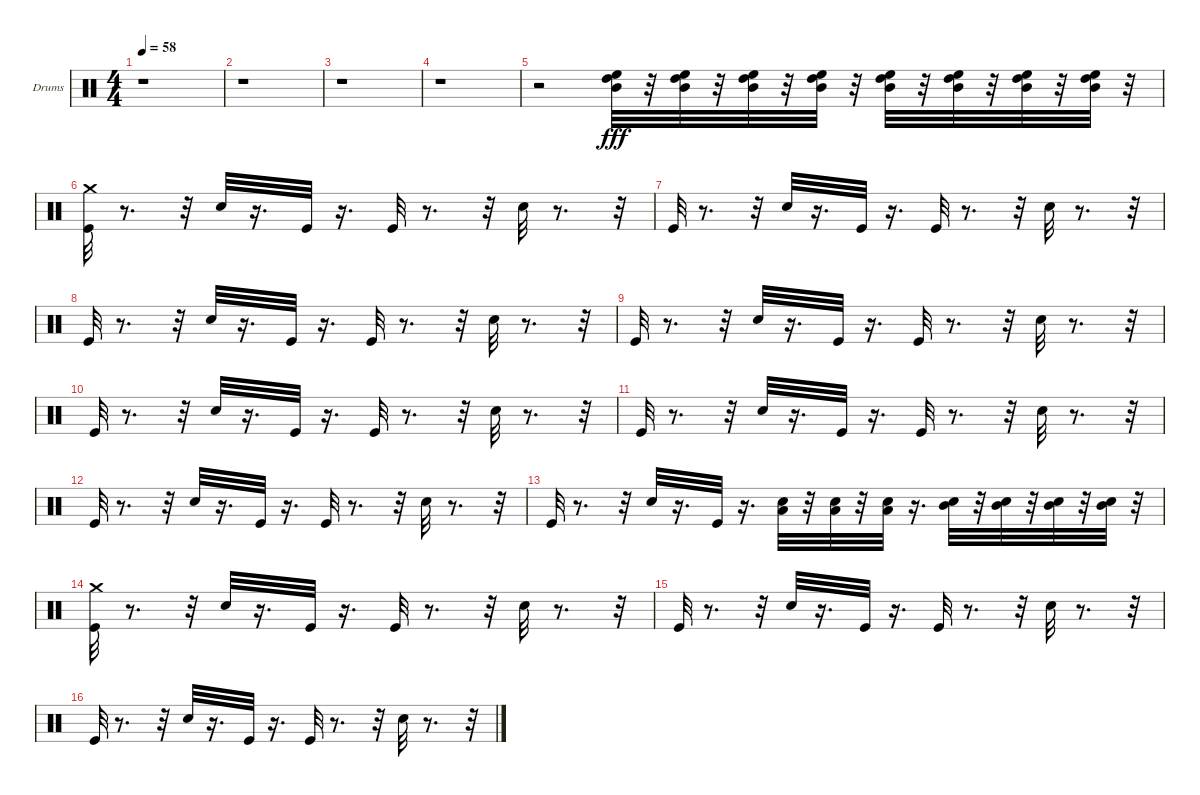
\bracketExtendMode groupsimilarinstruments
\firstSystemTrackNameOrientation horizontal
\otherSystemsTrackNameOrientation horizontal
\track ("Drumkit" "Drums") {instrument percussion}
\staff {score}
\articulation defaults
\ts (4 4)
\beaming (8 2 2 2 2)
\tempo 58
\clef neutral
\ks c
r.1{dy fff} |
r.1 |
r.1 |
r.1 |
r.2 ("Mid Tom (hit)" "High Floor Tom (hit)" "High Tom (hit)").32 r.32 ("Mid Tom (hit)" "High Floor Tom (hit)" "High Tom (hit)").32 r.32 ("Mid Tom (hit)" "High Floor Tom (hit)" "High Tom (hit)").32 r.32 ("Mid Tom (hit)" "High Floor Tom (hit)" "High Tom (hit)").32 r.32 ("Mid Tom (hit)" "High Floor Tom (hit)" "High Tom (hit)").32 r.32 ("Mid Tom (hit)" "High Floor Tom (hit)" "High Tom (hit)").32 r.32 ("Mid Tom (hit)" "High Floor Tom (hit)" "High Tom (hit)").32 r.32 ("Mid Tom (hit)" "High Floor Tom (hit)" "High Tom (hit)").32 r.32 |
("Kick (hit)" "Crash medium (hit)").32 r.8{d} r.32 "Snare (hit) 2".32 r.16{d} "Kick (hit)".32 r.16{d} "Kick (hit)".32 r.8{d} r.32 "Snare (hit) 2".32 r.8{d} r.32 |
"Kick (hit)".32 r.8{d} r.32 "Snare (hit) 2".32 r.16{d} "Kick (hit)".32 r.16{d} "Kick (hit)".32 r.8{d} r.32 "Snare (hit) 2".32 r.8{d} r.32 |
"Kick (hit)".32 r.8{d} r.32 "Snare (hit) 2".32 r.16{d} "Kick (hit)".32 r.16{d} "Kick (hit)".32 r.8{d} r.32 "Snare (hit) 2".32 r.8{d} r.32 |
"Kick (hit)".32 r.8{d} r.32 "Snare (hit) 2".32 r.16{d} "Kick (hit)".32 r.16{d} "Kick (hit)".32 r.8{d} r.32 "Snare (hit) 2".32 r.8{d} r.32 |
"Kick (hit)".32 r.8{d} r.32 "Snare (hit) 2".32 r.16{d} "Kick (hit)".32 r.16{d} "Kick (hit)".32 r.8{d} r.32 "Snare (hit) 2".32 r.8{d} r.32 |
"Kick (hit)".32 r.8{d} r.32 "Snare (hit) 2".32 r.16{d} "Kick (hit)".32 r.16{d} "Kick (hit)".32 r.8{d} r.32 "Snare (hit) 2".32 r.8{d} r.32 |
"Kick (hit)".32 r.8{d} r.32 "Snare (hit) 2".32 r.16{d} "Kick (hit)".32 r.16{d} "Kick (hit)".32 r.8{d} r.32 "Snare (hit) 2".32 r.8{d} r.32 |
"Kick (hit)".32 r.8{d} r.32 "Snare (hit) 2".32 r.16{d} "Kick (hit)".32 r.16{d} ("Low Tom (hit)" "Snare (hit) 2").32 r.32 ("Low Tom (hit)" "Snare (hit) 2").32 r.32 ("Low Tom (hit)" "Snare (hit) 2").32 r.16{d} ("Mid Tom (hit)" "Snare (hit) 2").32 r.32 ("Mid Tom (hit)" "Snare (hit) 2").32 r.32 ("Mid Tom (hit)" "Snare (hit) 2").32 r.32 ("Mid Tom (hit)" "Snare (hit) 2").32 r.32 |
("Kick (hit)" "Crash medium (hit)").32 r.8{d} r.32 "Snare (hit) 2".32 r.16{d} "Kick (hit)".32 r.16{d} "Kick (hit)".32 r.8{d} r.32 "Snare (hit) 2".32 r.8{d} r.32 |
"Kick (hit)".32 r.8{d} r.32 "Snare (hit) 2".32 r.16{d} "Kick (hit)".32 r.16{d} "Kick (hit)".32 r.8{d} r.32 "Snare (hit) 2".32 r.8{d} r.32 |
"Kick (hit)".32 r.8{d} r.32 "Snare (hit) 2".32 r.16{d} "Kick (hit)".32 r.16{d} "Kick (hit)".32 r.8{d} r.32 "Snare (hit) 2".32 r.8{d} r.32
